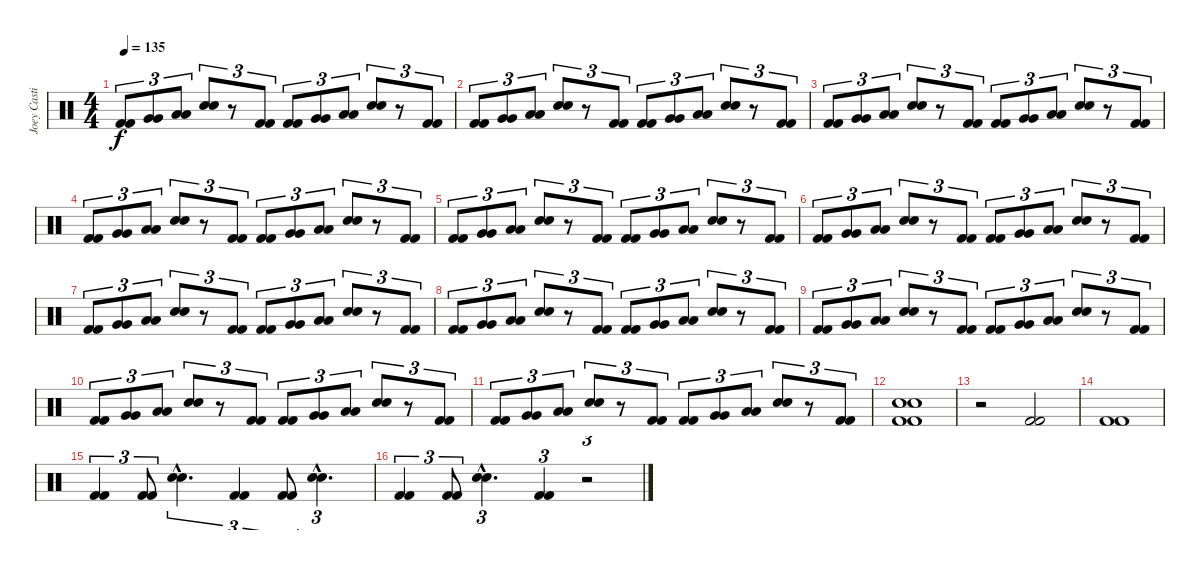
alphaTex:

\track ("Joey Castillo" "Joey Casti") {instrument percussion}
\staff {score}
\articulation defaults
\ts (4 4)
\tempo 135
\clef neutral
\ks c
("Kick (hit) 2" "Kick (hit) 2").8{tu (3 2) dy f} ("Very Low Tom (hit)" "Very Low Tom (hit)").8{tu (3 2)} ("Low Floor Tom (hit)" "Low Floor Tom (hit)").8{tu (3 2)} ("Electric Snare (hit)" "Electric Snare (hit)").8{tu (3 2)} r.8{tu (3 2)} ("Kick (hit) 2" "Kick (hit) 2").8{tu (3 2)} ("Kick (hit) 2" "Kick (hit) 2").8{tu (3 2)} ("Very Low Tom (hit)" "Very Low Tom (hit)").8{tu (3 2)} ("Low Floor Tom (hit)" "Low Floor Tom (hit)").8{tu (3 2)} ("Electric Snare (hit)" "Electric Snare (hit)").8{tu (3 2)} r.8{tu (3 2)} ("Kick (hit) 2" "Kick (hit) 2").8{tu (3 2)} |
("Kick (hit) 2" "Kick (hit) 2").8{tu (3 2)} ("Very Low Tom (hit)" "Very Low Tom (hit)").8{tu (3 2)} ("Low Floor Tom (hit)" "Low Floor Tom (hit)").8{tu (3 2)} ("Electric Snare (hit)" "Electric Snare (hit)").8{tu (3 2)} r.8{tu (3 2)} ("Kick (hit) 2" "Kick (hit) 2").8{tu (3 2)} ("Kick (hit) 2" "Kick (hit) 2").8{tu (3 2)} ("Very Low Tom (hit)" "Very Low Tom (hit)").8{tu (3 2)} ("Low Floor Tom (hit)" "Low Floor Tom (hit)").8{tu (3 2)} ("Electric Snare (hit)" "Electric Snare (hit)").8{tu (3 2)} r.8{tu (3 2)} ("Kick (hit) 2" "Kick (hit) 2").8{tu (3 2)} |
("Kick (hit) 2" "Kick (hit) 2").8{tu (3 2)} ("Very Low Tom (hit)" "Very Low Tom (hit)").8{tu (3 2)} ("Low Floor Tom (hit)" "Low Floor Tom (hit)").8{tu (3 2)} ("Electric Snare (hit)" "Electric Snare (hit)").8{tu (3 2)} r.8{tu (3 2)} ("Kick (hit) 2" "Kick (hit) 2").8{tu (3 2)} ("Kick (hit) 2" "Kick (hit) 2").8{tu (3 2)} ("Very Low Tom (hit)" "Very Low Tom (hit)").8{tu (3 2)} ("Low Floor Tom (hit)" "Low Floor Tom (hit)").8{tu (3 2)} ("Electric Snare (hit)" "Electric Snare (hit)").8{tu (3 2)} r.8{tu (3 2)} ("Kick (hit) 2" "Kick (hit) 2").8{tu (3 2)} |
("Kick (hit) 2" "Kick (hit) 2").8{tu (3 2)} ("Very Low Tom (hit)" "Very Low Tom (hit)").8{tu (3 2)} ("Low Floor Tom (hit)" "Low Floor Tom (hit)").8{tu (3 2)} ("Electric Snare (hit)" "Electric Snare (hit)").8{tu (3 2)} r.8{tu (3 2)} ("Kick (hit) 2" "Kick (hit) 2").8{tu (3 2)} ("Kick (hit) 2" "Kick (hit) 2").8{tu (3 2)} ("Very Low Tom (hit)" "Very Low Tom (hit)").8{tu (3 2)} ("Low Floor Tom (hit)" "Low Floor Tom (hit)").8{tu (3 2)} ("Electric Snare (hit)" "Electric Snare (hit)").8{tu (3 2)} r.8{tu (3 2)} ("Kick (hit) 2" "Kick (hit) 2").8{tu (3 2)} |
("Kick (hit) 2" "Kick (hit) 2").8{tu (3 2)} ("Very Low Tom (hit)" "Very Low Tom (hit)").8{tu (3 2)} ("Low Floor Tom (hit)" "Low Floor Tom (hit)").8{tu (3 2)} ("Electric Snare (hit)" "Electric Snare (hit)").8{tu (3 2)} r.8{tu (3 2)} ("Kick (hit) 2" "Kick (hit) 2").8{tu (3 2)} ("Kick (hit) 2" "Kick (hit) 2").8{tu (3 2)} ("Very Low Tom (hit)" "Very Low Tom (hit)").8{tu (3 2)} ("Low Floor Tom (hit)" "Low Floor Tom (hit)").8{tu (3 2)} ("Electric Snare (hit)" "Electric Snare (hit)").8{tu (3 2)} r.8{tu (3 2)} ("Kick (hit) 2" "Kick (hit) 2").8{tu (3 2)} |
("Kick (hit) 2" "Kick (hit) 2").8{tu (3 2)} ("Very Low Tom (hit)" "Very Low Tom (hit)").8{tu (3 2)} ("Low Floor Tom (hit)" "Low Floor Tom (hit)").8{tu (3 2)} ("Electric Snare (hit)" "Electric Snare (hit)").8{tu (3 2)} r.8{tu (3 2)} ("Kick (hit) 2" "Kick (hit) 2").8{tu (3 2)} ("Kick (hit) 2" "Kick (hit) 2").8{tu (3 2)} ("Very Low Tom (hit)" "Very Low Tom (hit)").8{tu (3 2)} ("Low Floor Tom (hit)" "Low Floor Tom (hit)").8{tu (3 2)} ("Electric Snare (hit)" "Electric Snare (hit)").8{tu (3 2)} r.8{tu (3 2)} ("Kick (hit) 2" "Kick (hit) 2").8{tu (3 2)} |
("Kick (hit) 2" "Kick (hit) 2").8{tu (3 2)} ("Very Low Tom (hit)" "Very Low Tom (hit)").8{tu (3 2)} ("Low Floor Tom (hit)" "Low Floor Tom (hit)").8{tu (3 2)} ("Electric Snare (hit)" "Electric Snare (hit)").8{tu (3 2)} r.8{tu (3 2)} ("Kick (hit) 2" "Kick (hit) 2").8{tu (3 2)} ("Kick (hit) 2" "Kick (hit) 2").8{tu (3 2)} ("Very Low Tom (hit)" "Very Low Tom (hit)").8{tu (3 2)} ("Low Floor Tom (hit)" "Low Floor Tom (hit)").8{tu (3 2)} ("Electric Snare (hit)" "Electric Snare (hit)").8{tu (3 2)} r.8{tu (3 2)} ("Kick (hit) 2" "Kick (hit) 2").8{tu (3 2)} |
("Kick (hit) 2" "Kick (hit) 2").8{tu (3 2)} ("Very Low Tom (hit)" "Very Low Tom (hit)").8{tu (3 2)} ("Low Floor Tom (hit)" "Low Floor Tom (hit)").8{tu (3 2)} ("Electric Snare (hit)" "Electric Snare (hit)").8{tu (3 2)} r.8{tu (3 2)} ("Kick (hit) 2" "Kick (hit) 2").8{tu (3 2)} ("Kick (hit) 2" "Kick (hit) 2").8{tu (3 2)} ("Very Low Tom (hit)" "Very Low Tom (hit)").8{tu (3 2)} ("Low Floor Tom (hit)" "Low Floor Tom (hit)").8{tu (3 2)} ("Electric Snare (hit)" "Electric Snare (hit)").8{tu (3 2)} r.8{tu (3 2)} ("Kick (hit) 2" "Kick (hit) 2").8{tu (3 2)} |
("Kick (hit) 2" "Kick (hit) 2").8{tu (3 2)} ("Very Low Tom (hit)" "Very Low Tom (hit)").8{tu (3 2)} ("Low Floor Tom (hit)" "Low Floor Tom (hit)").8{tu (3 2)} ("Electric Snare (hit)" "Electric Snare (hit)").8{tu (3 2)} r.8{tu (3 2)} ("Kick (hit) 2" "Kick (hit) 2").8{tu (3 2)} ("Kick (hit) 2" "Kick (hit) 2").8{tu (3 2)} ("Very Low Tom (hit)" "Very Low Tom (hit)").8{tu (3 2)} ("Low Floor Tom (hit)" "Low Floor Tom (hit)").8{tu (3 2)} ("Electric Snare (hit)" "Electric Snare (hit)").8{tu (3 2)} r.8{tu (3 2)} ("Kick (hit) 2" "Kick (hit) 2").8{tu (3 2)} |
("Kick (hit) 2" "Kick (hit) 2").8{tu (3 2)} ("Very Low Tom (hit)" "Very Low Tom (hit)").8{tu (3 2)} ("Low Floor Tom (hit)" "Low Floor Tom (hit)").8{tu (3 2)} ("Electric Snare (hit)" "Electric Snare (hit)").8{tu (3 2)} r.8{tu (3 2)} ("Kick (hit) 2" "Kick (hit) 2").8{tu (3 2)} ("Kick (hit) 2" "Kick (hit) 2").8{tu (3 2)} ("Very Low Tom (hit)" "Very Low Tom (hit)").8{tu (3 2)} ("Low Floor Tom (hit)" "Low Floor Tom (hit)").8{tu (3 2)} ("Electric Snare (hit)" "Electric Snare (hit)").8{tu (3 2)} r.8{tu (3 2)} ("Kick (hit) 2" "Kick (hit) 2").8{tu (3 2)} |
("Kick (hit) 2" "Kick (hit) 2").8{tu (3 2)} ("Very Low Tom (hit)" "Very Low Tom (hit)").8{tu (3 2)} ("Low Floor Tom (hit)" "Low Floor Tom (hit)").8{tu (3 2)} ("Electric Snare (hit)" "Electric Snare (hit)").8{tu (3 2)} r.8{tu (3 2)} ("Kick (hit) 2" "Kick (hit) 2").8{tu (3 2)} ("Kick (hit) 2" "Kick (hit) 2").8{tu (3 2)} ("Very Low Tom (hit)" "Very Low Tom (hit)").8{tu (3 2)} ("Low Floor Tom (hit)" "Low Floor Tom (hit)").8{tu (3 2)} ("Electric Snare (hit)" "Electric Snare (hit)").8{tu (3 2)} r.8{tu (3 2)} ("Kick (hit) 2" "Kick (hit) 2").8{tu (3 2)} |
("Electric Snare (hit)" "Electric Snare (hit)" "Kick (hit) 2" "Kick (hit) 2").1 |
r.2 ("Kick (hit) 2" "Kick (hit) 2").2 |
("Kick (hit) 2" "Kick (hit) 2").1 |
("Kick (hit) 2" "Kick (hit) 2").4{tu (3 2)} ("Kick (hit) 2" "Kick (hit) 2").8{tu (3 2)} ("Electric Snare (hit)"{hac} "Electric Snare (hit)"{hac}).4{d tu (3 2)} ("Kick (hit) 2" "Kick (hit) 2").4{tu (3 2)} ("Kick (hit) 2" "Kick (hit) 2").8{tu (3 2)} ("Electric Snare (hit)"{hac} "Electric Snare (hit)"{hac}).4{d tu (3 2)} |
("Kick (hit) 2" "Kick (hit) 2").4{tu (3 2)} ("Kick (hit) 2" "Kick (hit) 2").8{tu (3 2)} ("Electric Snare (hit)"{hac} "Electric Snare (hit)"{hac}).4{d tu (3 2)} ("Kick (hit) 2" "Kick (hit) 2").4{tu (3 2)} r.2{tu (3 2)}
